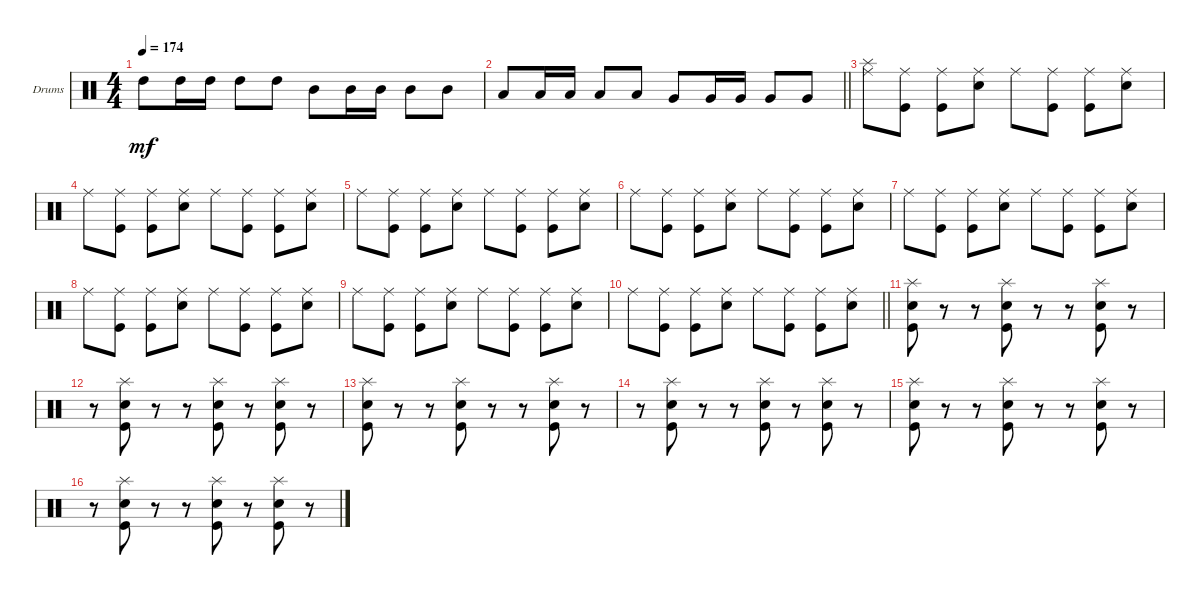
\bracketExtendMode groupsimilarinstruments
\firstSystemTrackNameOrientation horizontal
\otherSystemsTrackNameOrientation horizontal
\track ("Drumkit" "Drums") {instrument percussion}
\staff {score}
\articulation defaults
\ts (4 4)
\tempo 174
\clef neutral
\scale
0.333333
\ks c "High Tom (hit)".8{dy mf} "High Tom (hit)".16 "High Tom (hit)".16 "High Tom (hit)".8 "High Tom (hit)".8 "Mid Tom (hit)".8 "Mid Tom (hit)".16 "Mid Tom (hit)".16 "Mid Tom (hit)".8 "Mid Tom (hit)".8
|
\scale
0.333333
\barLineRight lightlight "Low Tom (hit)".8 "Low Tom (hit)".16 "Low Tom (hit)".16 "Low Tom (hit)".8 "Low Tom (hit)".8 "Very Low Tom (hit)".8 "Very Low Tom (hit)".16 "Very Low Tom (hit)".16 "Very Low Tom (hit)".8 "Very Low Tom (hit)".8
|
\scale
0.333333 ("Ride (middle)" "Splash (hit)").8 ("Kick (hit)" "Ride (middle)").8 ("Kick (hit)" "Ride (middle)").8 ("Snare (hit) 2" "Ride (middle)").8 "Ride (middle)".8 ("Ride (middle)" "Kick (hit)").8 ("Kick (hit)" "Ride (middle)").8 ("Snare (hit) 2" "Ride (middle)").8 |
\scale
0.333333 "Ride (middle)".8 ("Kick (hit)" "Ride (middle)").8 ("Kick (hit)" "Ride (middle)").8 ("Snare (hit) 2" "Ride (middle)").8 "Ride (middle)".8 ("Ride (middle)" "Kick (hit)").8 ("Kick (hit)" "Ride (middle)").8 ("Snare (hit) 2" "Ride (middle)").8 |
\scale
0.333333 "Ride (middle)".8 ("Kick (hit)" "Ride (middle)").8 ("Kick (hit)" "Ride (middle)").8 ("Snare (hit) 2" "Ride (middle)").8 "Ride (middle)".8 ("Ride (middle)" "Kick (hit)").8 ("Kick (hit)" "Ride (middle)").8 ("Snare (hit) 2" "Ride (middle)").8 |
\scale
0.333333 "Ride (middle)".8 ("Kick (hit)" "Ride (middle)").8 ("Kick (hit)" "Ride (middle)").8 ("Snare (hit) 2" "Ride (middle)").8 "Ride (middle)".8 ("Ride (middle)" "Kick (hit)").8 ("Kick (hit)" "Ride (middle)").8 ("Snare (hit) 2" "Ride (middle)").8 |
\scale
0.333333 "Ride (middle)".8 ("Kick (hit)" "Ride (middle)").8 ("Kick (hit)" "Ride (middle)").8 ("Snare (hit) 2" "Ride (middle)").8 "Ride (middle)".8 ("Ride (middle)" "Kick (hit)").8 ("Kick (hit)" "Ride (middle)").8 ("Snare (hit) 2" "Ride (middle)").8 |
\scale
0.333333 "Ride (middle)".8 ("Kick (hit)" "Ride (middle)").8 ("Kick (hit)" "Ride (middle)").8 ("Snare (hit) 2" "Ride (middle)").8 "Ride (middle)".8 ("Ride (middle)" "Kick (hit)").8 ("Kick (hit)" "Ride (middle)").8 ("Snare (hit) 2" "Ride (middle)").8 |
\scale
0.333333 "Ride (middle)".8 ("Kick (hit)" "Ride (middle)").8 ("Kick (hit)" "Ride (middle)").8 ("Snare (hit) 2" "Ride (middle)").8 "Ride (middle)".8 ("Ride (middle)" "Kick (hit)").8 ("Kick (hit)" "Ride (middle)").8 ("Snare (hit) 2" "Ride (middle)").8 |
\scale
0.333333
\barLineRight lightlight "Ride (middle)".8
("Kick (hit)" "Ride (middle)").8 ("Kick (hit)" "Ride (middle)").8 ("Snare (hit) 2" "Ride (middle)").8 "Ride (middle)".8 ("Ride (middle)" "Kick (hit)").8 ("Kick (hit)" "Ride (middle)").8 ("Snare (hit) 2" "Ride (middle)").8 |
\scale
0.333333 ("Splash (hit)" "Snare (hit) 2" "Kick (hit)").8 r.8 r.8 ("Splash (hit)" "Snare (hit) 2" "Kick (hit)").8 r.8 r.8 ("Splash (hit)" "Snare (hit) 2" "Kick (hit)").8 r.8 |
\scale
0.333333 r.8 ("Splash (hit)" "Snare (hit) 2" "Kick (hit)").8 r.8 r.8 ("Splash (hit)" "Snare (hit) 2" "Kick (hit)").8 r.8 ("Splash (hit)" "Snare (hit) 2" "Kick (hit)").8 r.8 |
\scale
0.333333 ("Splash (hit)" "Snare (hit) 2" "Kick (hit)").8 r.8 r.8 ("Splash (hit)" "Snare (hit) 2" "Kick (hit)").8 r.8 r.8 ("Splash (hit)" "Snare (hit) 2" "Kick (hit)").8 r.8 |
\scale
0.333333 r.8 ("Splash (hit)" "Snare (hit) 2" "Kick (hit)").8 r.8 r.8 ("Splash (hit)" "Snare (hit) 2" "Kick (hit)").8 r.8 ("Splash (hit)" "Snare (hit) 2" "Kick (hit)").8 r.8 |
\scale
0.333333 ("Splash (hit)" "Snare (hit) 2" "Kick (hit)").8 r.8 r.8 ("Splash (hit)" "Snare (hit) 2" "Kick (hit)").8 r.8 r.8 ("Splash (hit)" "Snare (hit) 2" "Kick (hit)").8 r.8 |
\scale
0.333333 r.8 ("Splash (hit)" "Snare (hit) 2" "Kick (hit)").8 r.8 r.8 ("Splash (hit)" "Snare (hit) 2" "Kick (hit)").8 r.8 ("Splash (hit)" "Snare (hit) 2" "Kick (hit)").8 r.8
